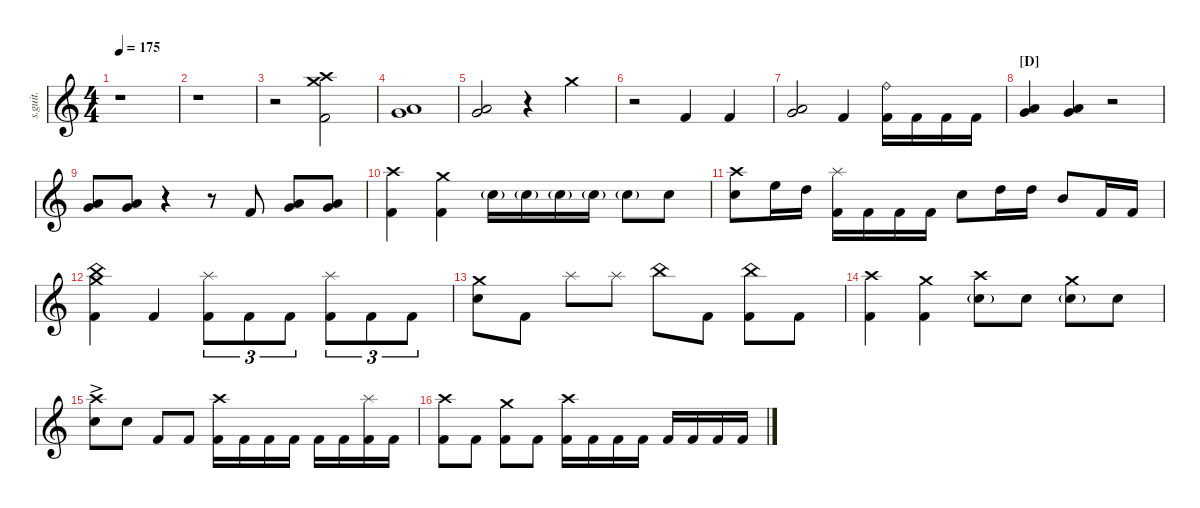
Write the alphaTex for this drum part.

\defaultSystemsLayout 4
\hideDynamics
\bracketExtendMode nobrackets
\track ("" "s.guit.") {instrument percussion}
\staff {score}
\articulation defaults
\ts (4 4)
\tempo 175
\clef g2
\ks c
r.1{dy ff} |
r.1 |
r.2 ("Crash medium (hit)" "Crash high (hit)" "Kick (hit) 2").2 |
("Low Tom (hit)" "Very Low Tom (hit)").1 |
("Low Tom (hit)" "Very Low Tom (hit)").2 r.4 "Crash medium (hit)".4 |
r.2 "Kick (hit) 2".4 "Kick (hit) 2".4 |
("Low Tom (hit)" "Very Low Tom (hit)").2 "Kick (hit) 2".4 ("Ride (bell)" "Kick (hit) 2").16 "Kick (hit) 2".16 "Kick (hit) 2".16 "Kick (hit) 2".16 |
\section ("D" "")
("Low Tom (hit)" "Very Low Tom (hit)").4 ("Low Tom (hit)" "Very Low Tom (hit)").4 r.2 |
("Low Tom (hit)" "Very Low Tom (hit)").8 ("Low Tom (hit)" "Very Low Tom (hit)").8 r.4 r.8 "Kick (hit) 2".8 ("Low Tom (hit)" "Very Low Tom (hit)").8 ("Low Tom (hit)" "Very Low Tom (hit)").8 |
("Crash high (hit)" "Kick (hit) 2").4 ("Crash medium (hit)" "Kick (hit) 2").4 "Snare (hit) 2"{g}.16 "Snare (hit) 2"{g}.16 "Snare (hit) 2"{g}.16 "Snare (hit) 2"{g}.16 "Snare (hit) 2"{g}.8 "Snare (hit) 2".8 |
("Crash high (hit)" "Snare (hit) 2").8 "High Floor Tom (hit)".16 "High Tom (hit)".16 ("Splash (hit)" "Kick (hit) 2").16 "Kick (hit) 2".16 "Kick (hit) 2".16 "Kick (hit) 2".16 "Snare (hit) 2".8 "High Tom (hit)".16 "High Tom (hit)".16 "Mid Tom (hit)".8 "Kick (hit) 2".16 "Kick (hit) 2".16 |
("China (hit)" "Crash medium (hit)" "Kick (hit) 2").4 "Kick (hit) 2".4 ("Splash (hit)" "Kick (hit) 2").8{tu (3 2)} "Kick (hit) 2".8{tu (3 2)} "Kick (hit) 2".8{tu (3 2)} ("Splash (hit)" "Kick (hit) 2").8{tu (3 2)} "Kick (hit) 2".8{tu (3 2)} "Kick (hit) 2".8{tu (3 2)} |
("Crash medium (hit)" "Snare (hit) 2").8 "Kick (hit) 2".8 "Splash (hit)".8 "Splash (hit)".8 "China (hit)".8 "Kick (hit) 2".8 ("China (hit)" "Kick (hit) 2").8 "Kick (hit) 2".8 |
("Crash high (hit)" "Kick (hit) 2").4 ("Crash medium (hit)" "Kick (hit) 2").4 ("Crash high (hit)" "Snare (hit) 2"{g}).8 "Snare (hit) 2".8 ("Crash medium (hit)" "Snare (hit) 2"{g}).8 "Snare (hit) 2".8 |
("Crash high (hit)" "Snare (hit) 2"{ac}).8 "Snare (hit) 2".8 "Kick (hit) 2".8 "Kick (hit) 2".8 ("Crash high (hit)" "Kick (hit) 2").16 "Kick (hit) 2".16 "Kick (hit) 2".16 "Kick (hit) 2".16 "Kick (hit) 2".16 "Kick (hit) 2".16 ("Splash (hit)" "Kick (hit) 2").16 "Kick (hit) 2".16 |
("Crash high (hit)" "Kick (hit) 2").8 "Kick (hit) 2".8 ("Crash medium (hit)" "Kick (hit) 2").8 "Kick (hit) 2".8 ("Crash high (hit)" "Kick (hit) 2").16 "Kick (hit) 2".16 "Kick (hit) 2".16 "Kick (hit) 2".16 "Kick (hit) 2".16 "Kick (hit) 2".16 "Kick (hit) 2".16 "Kick (hit) 2".16
